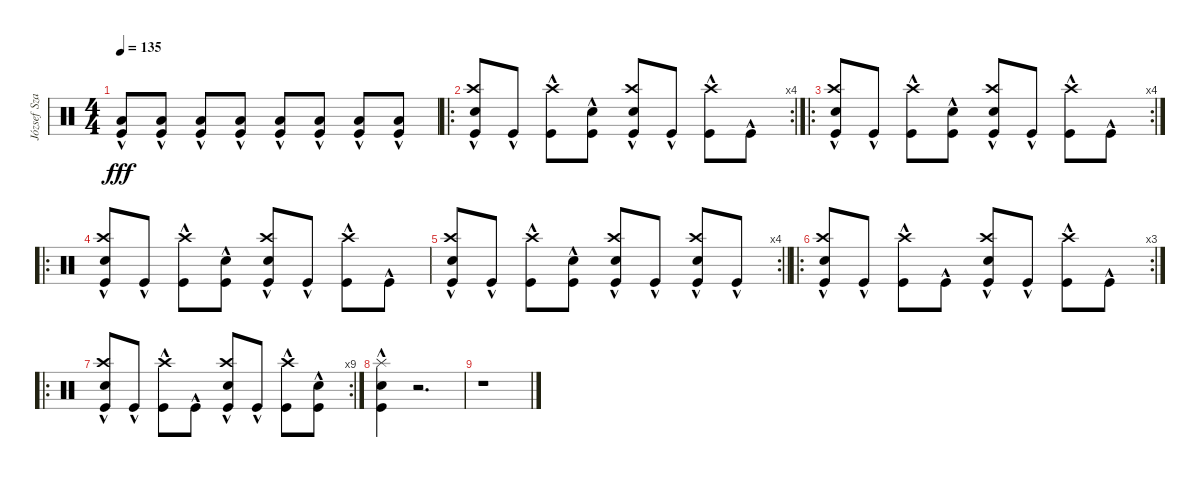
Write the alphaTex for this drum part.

\track ("József Szakács" "József Sza") {instrument percussion}
\staff {score}
\articulation defaults
\ts (4 4)
\tempo 135
\clef neutral
\ks c
("Low Tom (hit)"{hac} "Kick (hit)"{hac}).8{dy fff} ("Low Tom (hit)"{hac} "Kick (hit)"{hac}).8 ("Low Tom (hit)"{hac} "Kick (hit)"{hac}).8 ("Low Tom (hit)"{hac} "Kick (hit)"{hac}).8 ("Low Tom (hit)"{hac} "Kick (hit)"{hac}).8 ("Low Tom (hit)"{hac} "Kick (hit)"{hac}).8 ("Low Tom (hit)"{hac} "Kick (hit)"{hac}).8 ("Low Tom (hit)"{hac} "Kick (hit)"{hac}).8 |
\ro
\rc 4
("Crash high (hit)" "Electric Snare (hit)" "Kick (hit)"{hac}).8 "Kick (hit)"{hac}.8 ("Crash high (hit)" "Kick (hit)"{hac}).8 ("Electric Snare (hit)" "Kick (hit)"{hac}).8 ("Crash high (hit)" "Electric Snare (hit)" "Kick (hit)"{hac}).8 "Kick (hit)"{hac}.8 ("Crash high (hit)" "Kick (hit)"{hac}).8 "Kick (hit)"{hac}.8 |
\ro
\rc 4
("Crash high (hit)" "Electric Snare (hit)" "Kick (hit)"{hac}).8 "Kick (hit)"{hac}.8 ("Crash high (hit)" "Kick (hit)"{hac}).8 ("Electric Snare (hit)" "Kick (hit)"{hac}).8 ("Crash high (hit)" "Electric Snare (hit)" "Kick (hit)"{hac}).8 "Kick (hit)"{hac}.8 ("Crash high (hit)" "Kick (hit)"{hac}).8 "Kick (hit)"{hac}.8 |
\ro
("Crash high (hit)" "Electric Snare (hit)" "Kick (hit)"{hac}).8 "Kick (hit)"{hac}.8 ("Crash high (hit)" "Kick (hit)"{hac}).8 ("Electric Snare (hit)" "Kick (hit)"{hac}).8 ("Crash high (hit)" "Electric Snare (hit)" "Kick (hit)"{hac}).8 "Kick (hit)"{hac}.8 ("Crash high (hit)" "Kick (hit)"{hac}).8 "Kick (hit)"{hac}.8 |
\rc 4
\barLineRight lightlight
("Crash high (hit)" "Electric Snare (hit)" "Kick (hit)"{hac}).8 "Kick (hit)"{hac}.8 ("Crash high (hit)" "Kick (hit)"{hac}).8 ("Electric Snare (hit)" "Kick (hit)"{hac}).8 ("Crash high (hit)" "Electric Snare (hit)" "Kick (hit)"{hac}).8 "Kick (hit)"{hac}.8 ("Crash high (hit)" "Electric Snare (hit)" "Kick (hit)"{hac}).8 "Kick (hit)"{hac}.8 |
\ro
\rc 3
("Crash high (hit)" "Electric Snare (hit)" "Kick (hit)"{hac}).8 "Kick (hit)"{hac}.8 ("Crash high (hit)" "Kick (hit)"{hac}).8 "Kick (hit)"{hac}.8 ("Crash high (hit)" "Electric Snare (hit)" "Kick (hit)"{hac}).8 "Kick (hit)"{hac}.8 ("Crash high (hit)" "Kick (hit)"{hac}).8 "Kick (hit)"{hac}.8 |
\ro
\rc 9
("Crash high (hit)" "Electric Snare (hit)" "Kick (hit)"{hac}).8 "Kick (hit)"{hac}.8 ("Crash high (hit)" "Kick (hit)"{hac}).8 "Kick (hit)"{hac}.8 ("Crash high (hit)" "Electric Snare (hit)" "Kick (hit)"{hac}).8 "Kick (hit)"{hac}.8 ("Crash high (hit)" "Kick (hit)"{hac}).8 ("Electric Snare (hit)" "Kick (hit)"{hac}).8 |
("Splash (hit)" "Electric Snare (hit)" "Kick (hit)"{hac}).4 r.2{d} |
r.1
